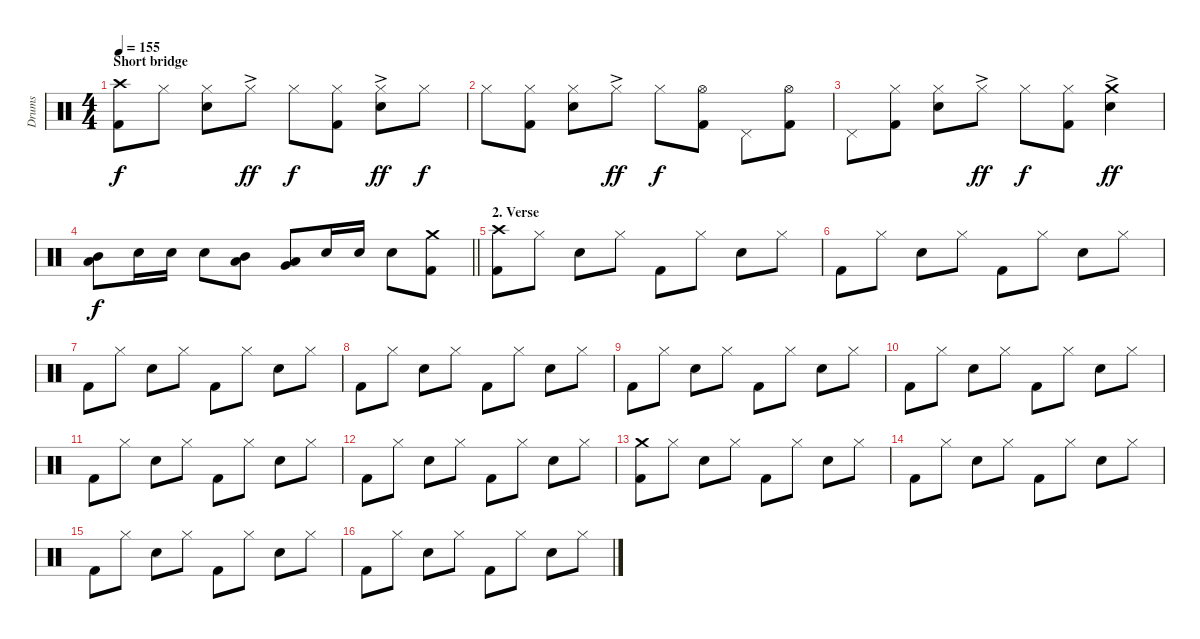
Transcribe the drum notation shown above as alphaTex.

\track ("Drums" "Drums") {instrument percussion}
\staff {score}
\articulation defaults
\ts (4 4)
\section ("" "Short bridge")
\tempo 155
\clef neutral
\ks c
("Crash high (hit)" "Kick (hit) 2").8{dy f} "Hi-Hat (closed)".8 ("Hi-Hat (closed)" "Electric Snare (hit)").8 "Hi-Hat (closed)"{ac}.8{dy ff} "Hi-Hat (closed)".8{dy f} ("Hi-Hat (closed)" "Kick (hit) 2").8 ("Hi-Hat (closed)"{ac} "Electric Snare (hit)").8{dy ff} "Hi-Hat (closed)".8{dy f} |
"Hi-Hat (closed)".8 ("Hi-Hat (closed)" "Kick (hit) 2").8 ("Hi-Hat (closed)" "Electric Snare (hit)").8 "Hi-Hat (closed)"{ac}.8{dy ff} "Hi-Hat (closed)".8{dy f} ("Hi-Hat (open)" "Kick (hit) 2").8 "Pedal Hi-Hat (hit)".8 ("Hi-Hat (open)" "Kick (hit) 2").8 |
"Pedal Hi-Hat (hit)".8 ("Hi-Hat (closed)" "Kick (hit) 2").8 ("Hi-Hat (closed)" "Electric Snare (hit)").8 "Hi-Hat (closed)"{ac}.8{dy ff} "Hi-Hat (closed)".8{dy f} ("Hi-Hat (closed)" "Kick (hit) 2").8 ("Crash medium (hit)"{ac} "Electric Snare (hit)").4{dy ff} |
\barLineRight lightlight
("Mid Tom (hit)" "Low Tom (hit)").8{dy f} "Electric Snare (hit)".16 "Electric Snare (hit)".16 "Electric Snare (hit)".8 ("Mid Tom (hit)" "Low Tom (hit)").8 ("Low Tom (hit)" "Very Low Tom (hit)").8 "Electric Snare (hit)".16 "Electric Snare (hit)".16 "Electric Snare (hit)".8 ("Crash medium (hit)" "Kick (hit) 2").8 |
\section ("" "2. Verse")
("Crash high (hit)" "Kick (hit) 2").8 "Hi-Hat (closed)".8 "Electric Snare (hit)".8 "Hi-Hat (closed)".8 "Kick (hit) 2".8 "Hi-Hat (closed)".8 "Electric Snare (hit)".8 "Hi-Hat (closed)".8 |
"Kick (hit) 2".8 "Hi-Hat (closed)".8 "Electric Snare (hit)".8 "Hi-Hat (closed)".8 "Kick (hit) 2".8 "Hi-Hat (closed)".8 "Electric Snare (hit)".8 "Hi-Hat (closed)".8 |
"Kick (hit) 2".8 "Hi-Hat (closed)".8 "Electric Snare (hit)".8 "Hi-Hat (closed)".8 "Kick (hit) 2".8 "Hi-Hat (closed)".8 "Electric Snare (hit)".8 "Hi-Hat (closed)".8 |
"Kick (hit) 2".8 "Hi-Hat (closed)".8 "Electric Snare (hit)".8 "Hi-Hat (closed)".8 "Kick (hit) 2".8 "Hi-Hat (closed)".8 "Electric Snare (hit)".8 "Hi-Hat (closed)".8 |
"Kick (hit) 2".8 "Hi-Hat (closed)".8 "Electric Snare (hit)".8 "Hi-Hat (closed)".8 "Kick (hit) 2".8 "Hi-Hat (closed)".8 "Electric Snare (hit)".8 "Hi-Hat (closed)".8 |
"Kick (hit) 2".8 "Hi-Hat (closed)".8 "Electric Snare (hit)".8 "Hi-Hat (closed)".8 "Kick (hit) 2".8 "Hi-Hat (closed)".8 "Electric Snare (hit)".8 "Hi-Hat (closed)".8 |
"Kick (hit) 2".8 "Hi-Hat (closed)".8 "Electric Snare (hit)".8 "Hi-Hat (closed)".8 "Kick (hit) 2".8 "Hi-Hat (closed)".8 "Electric Snare (hit)".8 "Hi-Hat (closed)".8 |
"Kick (hit) 2".8 "Hi-Hat (closed)".8 "Electric Snare (hit)".8 "Hi-Hat (closed)".8 "Kick (hit) 2".8 "Hi-Hat (closed)".8 "Electric Snare (hit)".8 "Hi-Hat (closed)".8 |
("Crash medium (hit)" "Kick (hit) 2").8 "Hi-Hat (closed)".8 "Electric Snare (hit)".8 "Hi-Hat (closed)".8 "Kick (hit) 2".8 "Hi-Hat (closed)".8 "Electric Snare (hit)".8 "Hi-Hat (closed)".8 |
"Kick (hit) 2".8 "Hi-Hat (closed)".8 "Electric Snare (hit)".8 "Hi-Hat (closed)".8 "Kick (hit) 2".8 "Hi-Hat (closed)".8 "Electric Snare (hit)".8 "Hi-Hat (closed)".8 |
"Kick (hit) 2".8 "Hi-Hat (closed)".8 "Electric Snare (hit)".8 "Hi-Hat (closed)".8 "Kick (hit) 2".8 "Hi-Hat (closed)".8 "Electric Snare (hit)".8 "Hi-Hat (closed)".8 |
"Kick (hit) 2".8 "Hi-Hat (closed)".8 "Electric Snare (hit)".8 "Hi-Hat (closed)".8 "Kick (hit) 2".8 "Hi-Hat (closed)".8 "Electric Snare (hit)".8 "Hi-Hat (closed)".8
